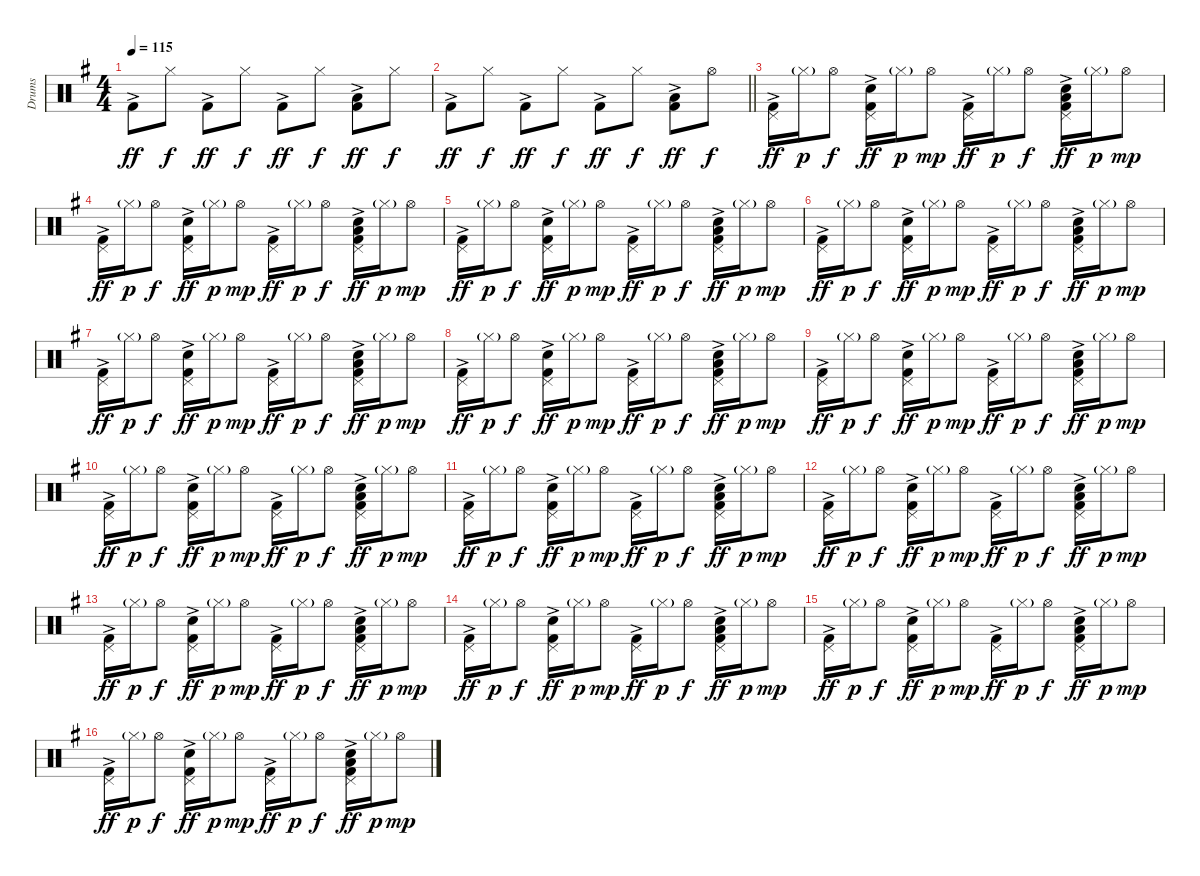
\track ("Drums" "Drums") {instrument percussion}
\staff {score}
\articulation defaults
\ts (4 4)
\tempo 115
\clef neutral
\ks g "Kick (hit) 2"{ac}.8{dy ff} "Hi-Hat (closed)".8{dy f} "Kick (hit) 2"{ac}.8{dy ff} "Hi-Hat (closed)".8{dy f} "Kick (hit) 2"{ac}.8{dy ff} "Hi-Hat (closed)".8{dy f}
("Low Tom (hit)" "Kick (hit) 2"{ac}).8{dy ff} "Hi-Hat (closed)".8{dy f} |
\barLineRight lightlight "Kick (hit) 2"{ac}.8{dy ff} "Hi-Hat (closed)".8{dy f} "Kick (hit) 2"{ac}.8{dy ff} "Hi-Hat (closed)".8{dy f} "Kick (hit) 2"{ac}.8{dy ff} "Hi-Hat (closed)".8{dy f}
("Low Tom (hit)" "Kick (hit) 2"{ac}).8{dy ff} "Hi-Hat (open)".8{dy f} |
("Pedal Hi-Hat (hit)" "Kick (hit) 2"{ac}).16{dy ff} "Hi-Hat (closed)"{g}.16{dy p} "Hi-Hat (open)".8{dy f} ("Pedal Hi-Hat (hit)" "Snare (hit) 2"{ac} "Kick (hit) 2"{ac}).16{dy ff} "Hi-Hat (closed)"{g}.16{dy p} "Hi-Hat (open)".8{dy mp} ("Pedal Hi-Hat (hit)" "Kick (hit) 2"{ac}).16{dy ff} "Hi-Hat (closed)"{g}.16{dy p} "Hi-Hat (open)".8{dy f} ("Pedal Hi-Hat (hit)" "Snare (hit) 2"{ac} "Low Tom (hit)" "Kick (hit) 2"{ac}).16{dy ff} "Hi-Hat (closed)"{g}.16{dy p} "Hi-Hat (open)".8{dy mp} |
("Pedal Hi-Hat (hit)" "Kick (hit) 2"{ac}).16{dy ff} "Hi-Hat (closed)"{g}.16{dy p} "Hi-Hat (open)".8{dy f} ("Pedal Hi-Hat (hit)" "Snare (hit) 2"{ac} "Kick (hit) 2"{ac}).16{dy ff} "Hi-Hat (closed)"{g}.16{dy p} "Hi-Hat (open)".8{dy mp} ("Pedal Hi-Hat (hit)" "Kick (hit) 2"{ac}).16{dy ff} "Hi-Hat (closed)"{g}.16{dy p} "Hi-Hat (open)".8{dy f} ("Pedal Hi-Hat (hit)" "Snare (hit) 2"{ac} "Low Tom (hit)" "Kick (hit) 2"{ac}).16{dy ff} "Hi-Hat (closed)"{g}.16{dy p} "Hi-Hat (open)".8{dy mp} |
("Pedal Hi-Hat (hit)" "Kick (hit) 2"{ac}).16{dy ff} "Hi-Hat (closed)"{g}.16{dy p} "Hi-Hat (open)".8{dy f} ("Pedal Hi-Hat (hit)" "Snare (hit) 2"{ac} "Kick (hit) 2"{ac}).16{dy ff} "Hi-Hat (closed)"{g}.16{dy p} "Hi-Hat (open)".8{dy mp} ("Pedal Hi-Hat (hit)" "Kick (hit) 2"{ac}).16{dy ff} "Hi-Hat (closed)"{g}.16{dy p} "Hi-Hat (open)".8{dy f} ("Pedal Hi-Hat (hit)" "Snare (hit) 2"{ac} "Low Tom (hit)" "Kick (hit) 2"{ac}).16{dy ff} "Hi-Hat (closed)"{g}.16{dy p} "Hi-Hat (open)".8{dy mp} |
("Pedal Hi-Hat (hit)" "Kick (hit) 2"{ac}).16{dy ff} "Hi-Hat (closed)"{g}.16{dy p} "Hi-Hat (open)".8{dy f} ("Pedal Hi-Hat (hit)" "Snare (hit) 2"{ac} "Kick (hit) 2"{ac}).16{dy ff} "Hi-Hat (closed)"{g}.16{dy p} "Hi-Hat (open)".8{dy mp} ("Pedal Hi-Hat (hit)" "Kick (hit) 2"{ac}).16{dy ff} "Hi-Hat (closed)"{g}.16{dy p} "Hi-Hat (open)".8{dy f} ("Pedal Hi-Hat (hit)" "Snare (hit) 2"{ac} "Low Tom (hit)" "Kick (hit) 2"{ac}).16{dy ff} "Hi-Hat (closed)"{g}.16{dy p} "Hi-Hat (open)".8{dy mp} |
("Pedal Hi-Hat (hit)" "Kick (hit) 2"{ac}).16{dy ff} "Hi-Hat (closed)"{g}.16{dy p} "Hi-Hat (open)".8{dy f} ("Pedal Hi-Hat (hit)" "Snare (hit) 2"{ac} "Kick (hit) 2"{ac}).16{dy ff} "Hi-Hat (closed)"{g}.16{dy p} "Hi-Hat (open)".8{dy mp} ("Pedal Hi-Hat (hit)" "Kick (hit) 2"{ac}).16{dy ff} "Hi-Hat (closed)"{g}.16{dy p} "Hi-Hat (open)".8{dy f} ("Pedal Hi-Hat (hit)" "Snare (hit) 2"{ac} "Low Tom (hit)" "Kick (hit) 2"{ac}).16{dy ff} "Hi-Hat (closed)"{g}.16{dy p} "Hi-Hat (open)".8{dy mp} |
("Pedal Hi-Hat (hit)" "Kick (hit) 2"{ac}).16{dy ff} "Hi-Hat (closed)"{g}.16{dy p} "Hi-Hat (open)".8{dy f} ("Pedal Hi-Hat (hit)" "Snare (hit) 2"{ac} "Kick (hit) 2"{ac}).16{dy ff} "Hi-Hat (closed)"{g}.16{dy p} "Hi-Hat (open)".8{dy mp} ("Pedal Hi-Hat (hit)" "Kick (hit) 2"{ac}).16{dy ff} "Hi-Hat (closed)"{g}.16{dy p} "Hi-Hat (open)".8{dy f} ("Pedal Hi-Hat (hit)" "Snare (hit) 2"{ac} "Low Tom (hit)" "Kick (hit) 2"{ac}).16{dy ff} "Hi-Hat (closed)"{g}.16{dy p} "Hi-Hat (open)".8{dy mp} |
("Pedal Hi-Hat (hit)" "Kick (hit) 2"{ac}).16{dy ff} "Hi-Hat (closed)"{g}.16{dy p} "Hi-Hat (open)".8{dy f} ("Pedal Hi-Hat (hit)" "Snare (hit) 2"{ac} "Kick (hit) 2"{ac}).16{dy ff} "Hi-Hat (closed)"{g}.16{dy p} "Hi-Hat (open)".8{dy mp} ("Pedal Hi-Hat (hit)" "Kick (hit) 2"{ac}).16{dy ff} "Hi-Hat (closed)"{g}.16{dy p} "Hi-Hat (open)".8{dy f} ("Pedal Hi-Hat (hit)" "Snare (hit) 2"{ac} "Low Tom (hit)" "Kick (hit) 2"{ac}).16{dy ff} "Hi-Hat (closed)"{g}.16{dy p} "Hi-Hat (open)".8{dy mp} |
("Pedal Hi-Hat (hit)" "Kick (hit) 2"{ac}).16{dy ff} "Hi-Hat (closed)"{g}.16{dy p} "Hi-Hat (open)".8{dy f} ("Pedal Hi-Hat (hit)" "Snare (hit) 2"{ac} "Kick (hit) 2"{ac}).16{dy ff} "Hi-Hat (closed)"{g}.16{dy p} "Hi-Hat (open)".8{dy mp} ("Pedal Hi-Hat (hit)" "Kick (hit) 2"{ac}).16{dy ff} "Hi-Hat (closed)"{g}.16{dy p} "Hi-Hat (open)".8{dy f} ("Pedal Hi-Hat (hit)" "Snare (hit) 2"{ac} "Low Tom (hit)" "Kick (hit) 2"{ac}).16{dy ff} "Hi-Hat (closed)"{g}.16{dy p} "Hi-Hat (open)".8{dy mp} |
("Pedal Hi-Hat (hit)" "Kick (hit) 2"{ac}).16{dy ff} "Hi-Hat (closed)"{g}.16{dy p} "Hi-Hat (open)".8{dy f} ("Pedal Hi-Hat (hit)" "Snare (hit) 2"{ac} "Kick (hit) 2"{ac}).16{dy ff} "Hi-Hat (closed)"{g}.16{dy p} "Hi-Hat (open)".8{dy mp} ("Pedal Hi-Hat (hit)" "Kick (hit) 2"{ac}).16{dy ff} "Hi-Hat (closed)"{g}.16{dy p} "Hi-Hat (open)".8{dy f} ("Pedal Hi-Hat (hit)" "Snare (hit) 2"{ac} "Low Tom (hit)" "Kick (hit) 2"{ac}).16{dy ff} "Hi-Hat (closed)"{g}.16{dy p} "Hi-Hat (open)".8{dy mp} |
("Pedal Hi-Hat (hit)" "Kick (hit) 2"{ac}).16{dy ff} "Hi-Hat (closed)"{g}.16{dy p} "Hi-Hat (open)".8{dy f} ("Pedal Hi-Hat (hit)" "Snare (hit) 2"{ac} "Kick (hit) 2"{ac}).16{dy ff} "Hi-Hat (closed)"{g}.16{dy p} "Hi-Hat (open)".8{dy mp} ("Pedal Hi-Hat (hit)" "Kick (hit) 2"{ac}).16{dy ff} "Hi-Hat (closed)"{g}.16{dy p} "Hi-Hat (open)".8{dy f} ("Pedal Hi-Hat (hit)" "Snare (hit) 2"{ac} "Low Tom (hit)" "Kick (hit) 2"{ac}).16{dy ff} "Hi-Hat (closed)"{g}.16{dy p} "Hi-Hat (open)".8{dy mp} |
("Pedal Hi-Hat (hit)" "Kick (hit) 2"{ac}).16{dy ff} "Hi-Hat (closed)"{g}.16{dy p} "Hi-Hat (open)".8{dy f} ("Pedal Hi-Hat (hit)" "Snare (hit) 2"{ac} "Kick (hit) 2"{ac}).16{dy ff} "Hi-Hat (closed)"{g}.16{dy p} "Hi-Hat (open)".8{dy mp} ("Pedal Hi-Hat (hit)" "Kick (hit) 2"{ac}).16{dy ff} "Hi-Hat (closed)"{g}.16{dy p} "Hi-Hat (open)".8{dy f} ("Pedal Hi-Hat (hit)" "Snare (hit) 2"{ac} "Low Tom (hit)" "Kick (hit) 2"{ac}).16{dy ff} "Hi-Hat (closed)"{g}.16{dy p} "Hi-Hat (open)".8{dy mp} |
("Pedal Hi-Hat (hit)" "Kick (hit) 2"{ac}).16{dy ff} "Hi-Hat (closed)"{g}.16{dy p} "Hi-Hat (open)".8{dy f} ("Pedal Hi-Hat (hit)" "Snare (hit) 2"{ac} "Kick (hit) 2"{ac}).16{dy ff} "Hi-Hat (closed)"{g}.16{dy p} "Hi-Hat (open)".8{dy mp} ("Pedal Hi-Hat (hit)" "Kick (hit) 2"{ac}).16{dy ff} "Hi-Hat (closed)"{g}.16{dy p} "Hi-Hat (open)".8{dy f} ("Pedal Hi-Hat (hit)" "Snare (hit) 2"{ac} "Low Tom (hit)" "Kick (hit) 2"{ac}).16{dy ff} "Hi-Hat (closed)"{g}.16{dy p} "Hi-Hat (open)".8{dy mp} |
("Pedal Hi-Hat (hit)" "Kick (hit) 2"{ac}).16{dy ff} "Hi-Hat (closed)"{g}.16{dy p} "Hi-Hat (open)".8{dy f} ("Pedal Hi-Hat (hit)" "Snare (hit) 2"{ac} "Kick (hit) 2"{ac}).16{dy ff} "Hi-Hat (closed)"{g}.16{dy p} "Hi-Hat (open)".8{dy mp} ("Pedal Hi-Hat (hit)" "Kick (hit) 2"{ac}).16{dy ff} "Hi-Hat (closed)"{g}.16{dy p} "Hi-Hat (open)".8{dy f} ("Pedal Hi-Hat (hit)" "Snare (hit) 2"{ac} "Low Tom (hit)" "Kick (hit) 2"{ac}).16{dy ff} "Hi-Hat (closed)"{g}.16{dy p} "Hi-Hat (open)".8{dy mp} |
("Pedal Hi-Hat (hit)" "Kick (hit) 2"{ac}).16{dy ff} "Hi-Hat (closed)"{g}.16{dy p} "Hi-Hat (open)".8{dy f} ("Pedal Hi-Hat (hit)" "Snare (hit) 2"{ac} "Kick (hit) 2"{ac}).16{dy ff} "Hi-Hat (closed)"{g}.16{dy p} "Hi-Hat (open)".8{dy mp} ("Pedal Hi-Hat (hit)" "Kick (hit) 2"{ac}).16{dy ff} "Hi-Hat (closed)"{g}.16{dy p} "Hi-Hat (open)".8{dy f} ("Pedal Hi-Hat (hit)" "Snare (hit) 2"{ac} "Low Tom (hit)" "Kick (hit) 2"{ac}).16{dy ff} "Hi-Hat (closed)"{g}.16{dy p} "Hi-Hat (open)".8{dy mp}
